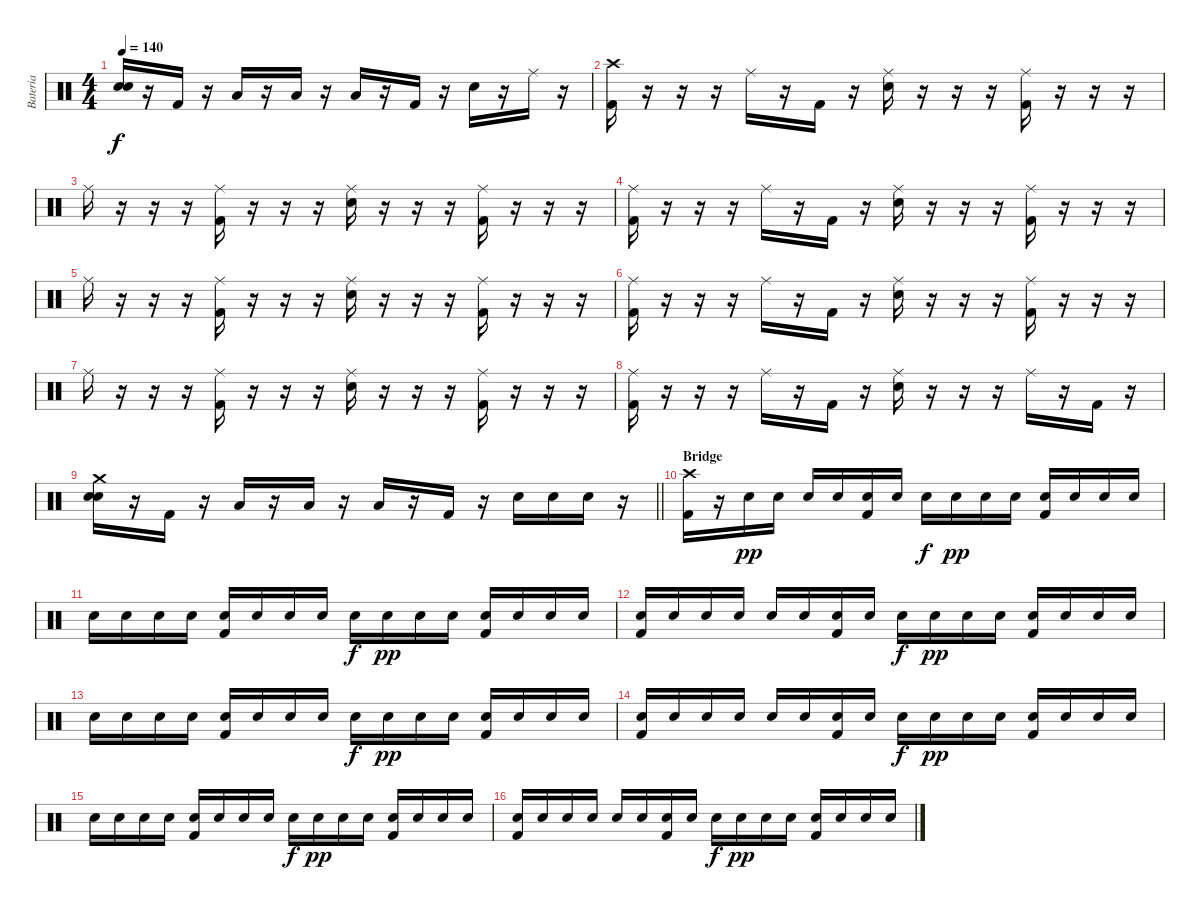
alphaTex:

\track ("Bateria" "Bateria") {instrument percussion}
\staff {score}
\articulation defaults
\ts (4 4)
\tempo 140
\clef neutral
\ks c
("Snare (hit) 2" "Electric Snare (hit)").16{dy f} r.16 "Kick (hit) 2".16 r.16 "Low Floor Tom (hit)".16 r.16 "Low Tom (hit)".16 r.16 "Low Floor Tom (hit)".16 r.16 "Kick (hit) 2".16 r.16 "Snare (hit) 2".16 r.16 "Ride (middle)".16 r.16 |
("Crash high (hit)" "Kick (hit) 2").16 r.16 r.16 r.16 "Ride (middle)".16 r.16 "Kick (hit) 2".16 r.16 ("Ride (middle)" "Snare (hit) 2").16 r.16 r.16 r.16 ("Ride (middle)" "Kick (hit) 2").16 r.16 r.16 r.16 |
"Ride (middle)".16 r.16 r.16 r.16 ("Ride (middle)" "Kick (hit) 2").16 r.16 r.16 r.16 ("Ride (middle)" "Snare (hit) 2").16 r.16 r.16 r.16 ("Ride (middle)" "Kick (hit) 2").16 r.16 r.16 r.16 |
("Ride (middle)" "Kick (hit) 2").16 r.16 r.16 r.16 "Ride (middle)".16 r.16 "Kick (hit) 2".16 r.16 ("Ride (middle)" "Snare (hit) 2").16 r.16 r.16 r.16 ("Ride (middle)" "Kick (hit) 2").16 r.16 r.16 r.16 |
"Ride (middle)".16 r.16 r.16 r.16 ("Ride (middle)" "Kick (hit) 2").16 r.16 r.16 r.16 ("Ride (middle)" "Snare (hit) 2").16 r.16 r.16 r.16 ("Ride (middle)" "Kick (hit) 2").16 r.16 r.16 r.16 |
("Ride (middle)" "Kick (hit) 2").16 r.16 r.16 r.16 "Ride (middle)".16 r.16 "Kick (hit) 2".16 r.16 ("Ride (middle)" "Snare (hit) 2").16 r.16 r.16 r.16 ("Ride (middle)" "Kick (hit) 2").16 r.16 r.16 r.16 |
"Ride (middle)".16 r.16 r.16 r.16 ("Ride (middle)" "Kick (hit) 2").16 r.16 r.16 r.16 ("Ride (middle)" "Snare (hit) 2").16 r.16 r.16 r.16 ("Ride (middle)" "Kick (hit) 2").16 r.16 r.16 r.16 |
("Ride (middle)" "Kick (hit) 2").16 r.16 r.16 r.16 "Ride (middle)".16 r.16 "Kick (hit) 2".16 r.16 ("Ride (middle)" "Snare (hit) 2").16 r.16 r.16 r.16 "Ride (middle)".16 r.16 "Kick (hit) 2".16 r.16 |
\barLineRight lightlight
("Crash medium (hit)" "Snare (hit) 2" "Electric Snare (hit)").16 r.16 "Kick (hit) 2".16 r.16 "Low Floor Tom (hit)".16 r.16 "Low Tom (hit)".16 r.16 "Low Floor Tom (hit)".16 r.16 "Kick (hit) 2".16 r.16 "Snare (hit) 2".16 "Snare (hit) 2".16 "Snare (hit) 2".16 r.16 |
\section ("" "Bridge")
("Crash high (hit)" "Kick (hit) 2").16 r.16 "Snare (hit) 2".16{dy pp} "Snare (hit) 2".16 "Snare (hit) 2".16 "Snare (hit) 2".16 ("Snare (hit) 2" "Kick (hit) 2").16 "Snare (hit) 2".16 "Snare (hit) 2".16{dy f} "Snare (hit) 2".16{dy pp} "Snare (hit) 2".16 "Snare (hit) 2".16 ("Snare (hit) 2" "Kick (hit) 2").16 "Snare (hit) 2".16 "Snare (hit) 2".16 "Snare (hit) 2".16 |
"Snare (hit) 2".16 "Snare (hit) 2".16 "Snare (hit) 2".16 "Snare (hit) 2".16 ("Snare (hit) 2" "Kick (hit) 2").16 "Snare (hit) 2".16 "Snare (hit) 2".16 "Snare (hit) 2".16 "Snare (hit) 2".16{dy f} "Snare (hit) 2".16{dy pp} "Snare (hit) 2".16 "Snare (hit) 2".16 ("Snare (hit) 2" "Kick (hit) 2").16 "Snare (hit) 2".16 "Snare (hit) 2".16 "Snare (hit) 2".16 |
("Snare (hit) 2" "Kick (hit) 2").16 "Snare (hit) 2".16 "Snare (hit) 2".16 "Snare (hit) 2".16 "Snare (hit) 2".16 "Snare (hit) 2".16 ("Snare (hit) 2" "Kick (hit) 2").16 "Snare (hit) 2".16 "Snare (hit) 2".16{dy f} "Snare (hit) 2".16{dy pp} "Snare (hit) 2".16 "Snare (hit) 2".16 ("Snare (hit) 2" "Kick (hit) 2").16 "Snare (hit) 2".16 "Snare (hit) 2".16 "Snare (hit) 2".16 |
"Snare (hit) 2".16 "Snare (hit) 2".16 "Snare (hit) 2".16 "Snare (hit) 2".16 ("Snare (hit) 2" "Kick (hit) 2").16 "Snare (hit) 2".16 "Snare (hit) 2".16 "Snare (hit) 2".16 "Snare (hit) 2".16{dy f} "Snare (hit) 2".16{dy pp} "Snare (hit) 2".16 "Snare (hit) 2".16 ("Snare (hit) 2" "Kick (hit) 2").16 "Snare (hit) 2".16 "Snare (hit) 2".16 "Snare (hit) 2".16 |
("Snare (hit) 2" "Kick (hit) 2").16 "Snare (hit) 2".16 "Snare (hit) 2".16 "Snare (hit) 2".16 "Snare (hit) 2".16 "Snare (hit) 2".16 ("Snare (hit) 2" "Kick (hit) 2").16 "Snare (hit) 2".16 "Snare (hit) 2".16{dy f} "Snare (hit) 2".16{dy pp} "Snare (hit) 2".16 "Snare (hit) 2".16 ("Snare (hit) 2" "Kick (hit) 2").16 "Snare (hit) 2".16 "Snare (hit) 2".16 "Snare (hit) 2".16 |
"Snare (hit) 2".16 "Snare (hit) 2".16 "Snare (hit) 2".16 "Snare (hit) 2".16 ("Snare (hit) 2" "Kick (hit) 2").16 "Snare (hit) 2".16 "Snare (hit) 2".16 "Snare (hit) 2".16 "Snare (hit) 2".16{dy f} "Snare (hit) 2".16{dy pp} "Snare (hit) 2".16 "Snare (hit) 2".16 ("Snare (hit) 2" "Kick (hit) 2").16 "Snare (hit) 2".16 "Snare (hit) 2".16 "Snare (hit) 2".16 |
("Snare (hit) 2" "Kick (hit) 2").16 "Snare (hit) 2".16 "Snare (hit) 2".16 "Snare (hit) 2".16 "Snare (hit) 2".16 "Snare (hit) 2".16 ("Snare (hit) 2" "Kick (hit) 2").16 "Snare (hit) 2".16 "Snare (hit) 2".16{dy f} "Snare (hit) 2".16{dy pp} "Snare (hit) 2".16 "Snare (hit) 2".16 ("Snare (hit) 2" "Kick (hit) 2").16 "Snare (hit) 2".16 "Snare (hit) 2".16 "Snare (hit) 2".16
